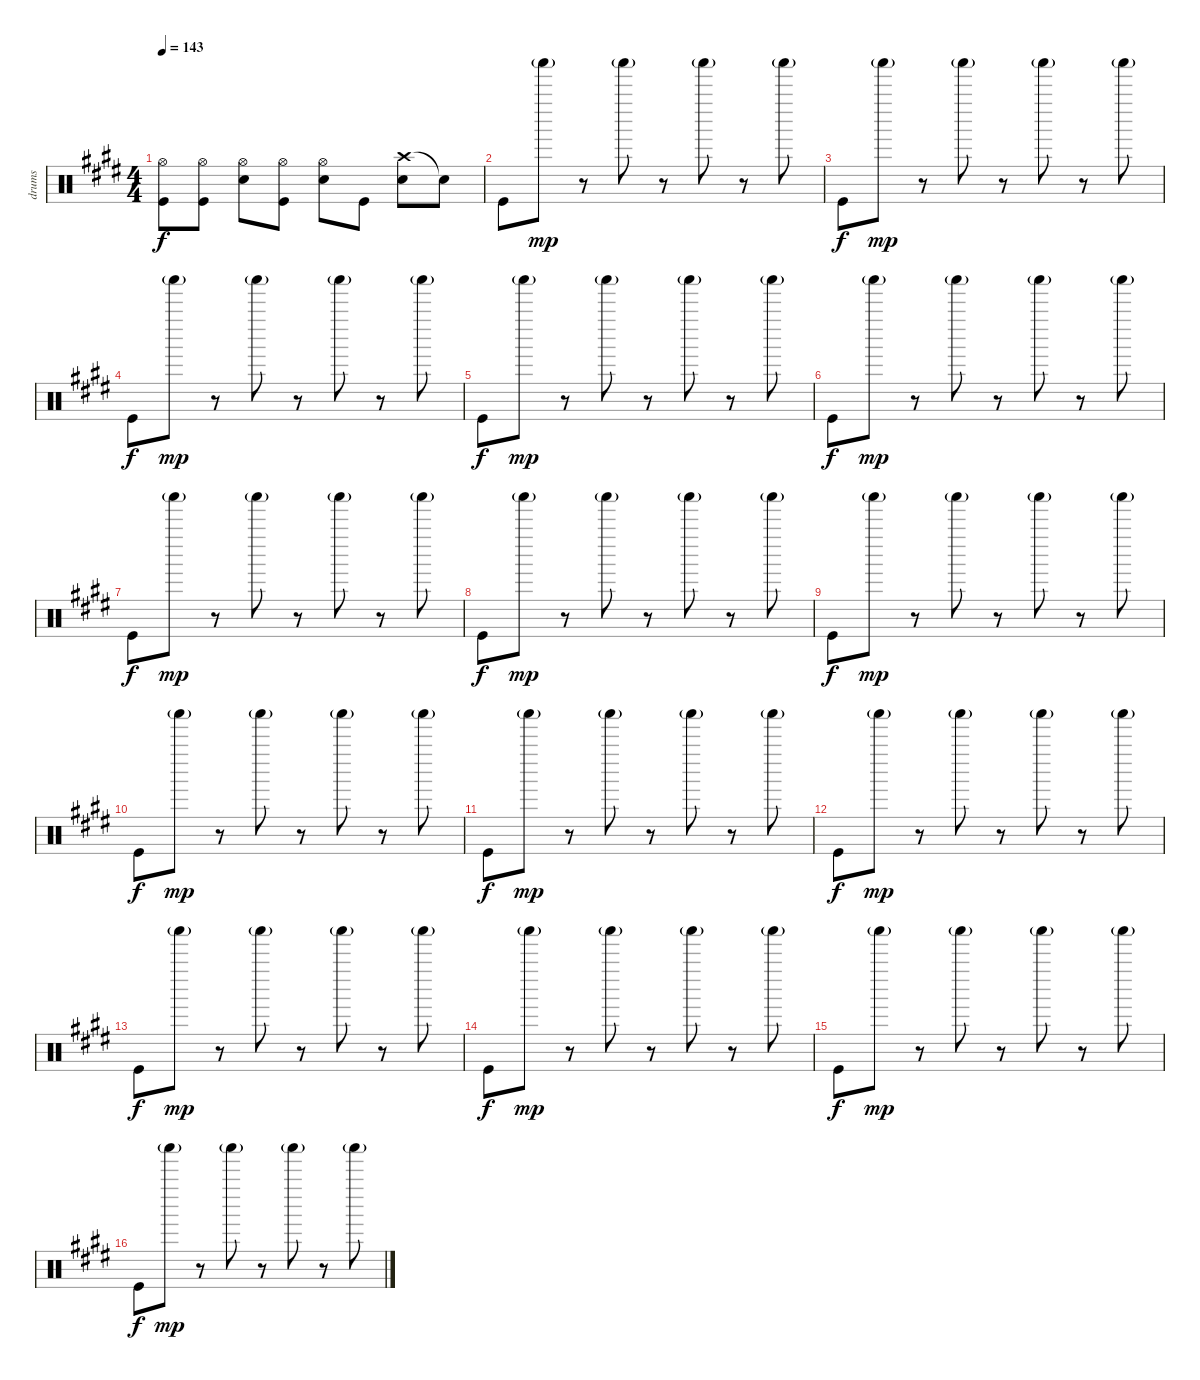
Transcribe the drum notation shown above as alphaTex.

\track ("drums" "drums") {instrument percussion}
\staff {score}
\articulation defaults
\ts (4 4)
\tempo 143
\clef neutral
\ks c#minor
("Hi-Hat (open)" "Kick (hit)").8{dy f} ("Hi-Hat (open)" "Kick (hit)").8 ("Hi-Hat (open)" "Electric Snare (hit)").8 ("Hi-Hat (open)" "Kick (hit)").8 ("Hi-Hat (open)" "Electric Snare (hit)").8 "Kick (hit)".8 ("Crash high (hit)" "Electric Snare (hit)").8 "Snare (hit)"{t}.8 |
"Kick (hit)".8 "Shaker (hit)"{g}.8{dy mp} r.8 "Shaker (hit)"{g}.8 r.8 "Shaker (hit)"{g}.8 r.8 "Shaker (hit)"{g}.8 |
"Kick (hit)".8{dy f} "Shaker (hit)"{g}.8{dy mp} r.8 "Shaker (hit)"{g}.8 r.8 "Shaker (hit)"{g}.8 r.8 "Shaker (hit)"{g}.8 |
"Kick (hit)".8{dy f} "Shaker (hit)"{g}.8{dy mp} r.8 "Shaker (hit)"{g}.8 r.8 "Shaker (hit)"{g}.8 r.8 "Shaker (hit)"{g}.8 |
"Kick (hit)".8{dy f} "Shaker (hit)"{g}.8{dy mp} r.8 "Shaker (hit)"{g}.8 r.8 "Shaker (hit)"{g}.8 r.8 "Shaker (hit)"{g}.8 |
"Kick (hit)".8{dy f} "Shaker (hit)"{g}.8{dy mp} r.8 "Shaker (hit)"{g}.8 r.8 "Shaker (hit)"{g}.8 r.8 "Shaker (hit)"{g}.8 |
"Kick (hit)".8{dy f} "Shaker (hit)"{g}.8{dy mp} r.8 "Shaker (hit)"{g}.8 r.8 "Shaker (hit)"{g}.8 r.8 "Shaker (hit)"{g}.8 |
"Kick (hit)".8{dy f} "Shaker (hit)"{g}.8{dy mp} r.8 "Shaker (hit)"{g}.8 r.8 "Shaker (hit)"{g}.8 r.8 "Shaker (hit)"{g}.8 |
"Kick (hit)".8{dy f} "Shaker (hit)"{g}.8{dy mp} r.8 "Shaker (hit)"{g}.8 r.8 "Shaker (hit)"{g}.8 r.8 "Shaker (hit)"{g}.8 |
"Kick (hit)".8{dy f} "Shaker (hit)"{g}.8{dy mp} r.8 "Shaker (hit)"{g}.8 r.8 "Shaker (hit)"{g}.8 r.8 "Shaker (hit)"{g}.8 |
"Kick (hit)".8{dy f} "Shaker (hit)"{g}.8{dy mp} r.8 "Shaker (hit)"{g}.8 r.8 "Shaker (hit)"{g}.8 r.8 "Shaker (hit)"{g}.8 |
"Kick (hit)".8{dy f} "Shaker (hit)"{g}.8{dy mp} r.8 "Shaker (hit)"{g}.8 r.8 "Shaker (hit)"{g}.8 r.8 "Shaker (hit)"{g}.8 |
"Kick (hit)".8{dy f} "Shaker (hit)"{g}.8{dy mp} r.8 "Shaker (hit)"{g}.8 r.8 "Shaker (hit)"{g}.8 r.8 "Shaker (hit)"{g}.8 |
"Kick (hit)".8{dy f} "Shaker (hit)"{g}.8{dy mp} r.8 "Shaker (hit)"{g}.8 r.8 "Shaker (hit)"{g}.8 r.8 "Shaker (hit)"{g}.8 |
"Kick (hit)".8{dy f} "Shaker (hit)"{g}.8{dy mp} r.8 "Shaker (hit)"{g}.8 r.8 "Shaker (hit)"{g}.8 r.8 "Shaker (hit)"{g}.8 |
"Kick (hit)".8{dy f} "Shaker (hit)"{g}.8{dy mp} r.8 "Shaker (hit)"{g}.8 r.8 "Shaker (hit)"{g}.8 r.8 "Shaker (hit)"{g}.8
